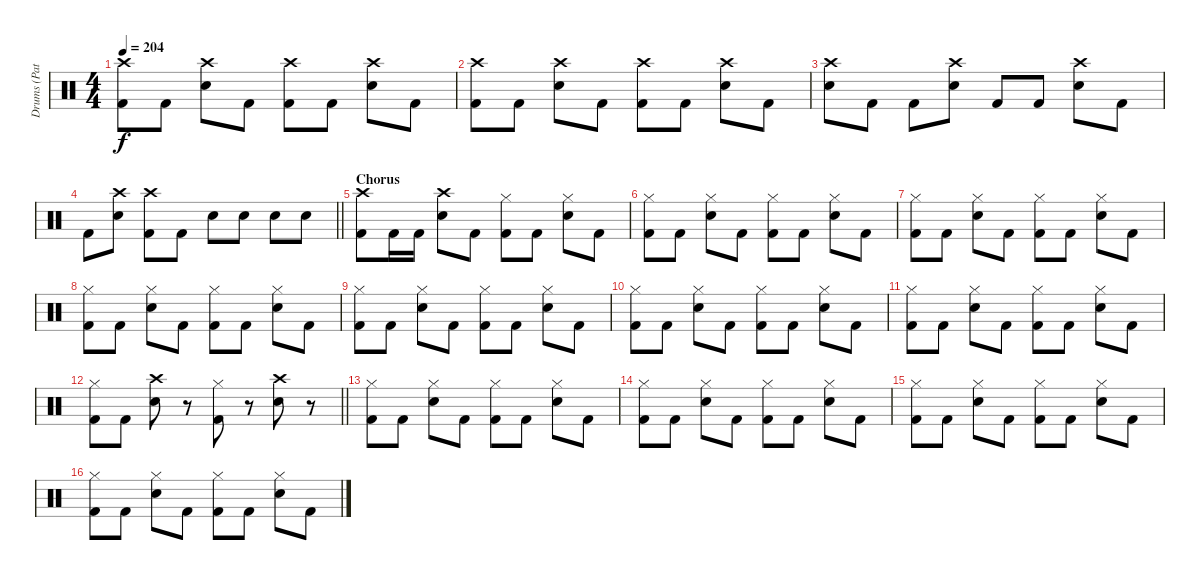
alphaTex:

\track ("Drums (Patrick Johansson)" "Drums (Pat") {instrument percussion}
\staff {score}
\articulation defaults
\ts (4 4)
\tempo 204
\clef neutral
\ks c
("Crash high (hit)" "Kick (hit) 2").8{dy f} "Kick (hit) 2".8 ("Crash high (hit)" "Electric Snare (hit)").8 "Kick (hit) 2".8 ("Crash high (hit)" "Kick (hit) 2").8 "Kick (hit) 2".8 ("Crash high (hit)" "Electric Snare (hit)").8 "Kick (hit) 2".8 |
("Crash high (hit)" "Kick (hit) 2").8 "Kick (hit) 2".8 ("Crash high (hit)" "Electric Snare (hit)").8 "Kick (hit) 2".8 ("Crash high (hit)" "Kick (hit) 2").8 "Kick (hit) 2".8 ("Crash high (hit)" "Electric Snare (hit)").8 "Kick (hit) 2".8 |
("Crash high (hit)" "Electric Snare (hit)").8 "Kick (hit) 2".8 "Kick (hit) 2".8 ("Crash high (hit)" "Electric Snare (hit)").8 "Kick (hit) 2".8 "Kick (hit) 2".8 ("Crash high (hit)" "Electric Snare (hit)").8 "Kick (hit) 2".8 |
\barLineRight lightlight "Kick (hit) 2".8
("Crash high (hit)" "Electric Snare (hit)").8 ("Crash high (hit)" "Kick (hit) 2").8 "Kick (hit) 2".8 "Electric Snare (hit)".8 "Electric Snare (hit)".8 "Electric Snare (hit)".8 "Electric Snare (hit)".8 |
\section ("" "Chorus")
("Crash high (hit)" "Kick (hit) 2").8 "Kick (hit) 2".16 "Kick (hit) 2".16 ("Crash high (hit)" "Electric Snare (hit)").8 "Kick (hit) 2".8 ("Hi-Hat (closed)" "Kick (hit) 2").8 "Kick (hit) 2".8 ("Electric Snare (hit)" "Hi-Hat (closed)").8 "Kick (hit) 2".8 |
("Hi-Hat (closed)" "Kick (hit) 2").8 "Kick (hit) 2".8 ("Electric Snare (hit)" "Hi-Hat (closed)").8 "Kick (hit) 2".8 ("Hi-Hat (closed)" "Kick (hit) 2").8 "Kick (hit) 2".8 ("Electric Snare (hit)" "Hi-Hat (closed)").8 "Kick (hit) 2".8 |
("Hi-Hat (closed)" "Kick (hit) 2").8 "Kick (hit) 2".8 ("Electric Snare (hit)" "Hi-Hat (closed)").8 "Kick (hit) 2".8 ("Hi-Hat (closed)" "Kick (hit) 2").8 "Kick (hit) 2".8 ("Electric Snare (hit)" "Hi-Hat (closed)").8 "Kick (hit) 2".8 |
("Hi-Hat (closed)" "Kick (hit) 2").8 "Kick (hit) 2".8 ("Electric Snare (hit)" "Hi-Hat (closed)").8 "Kick (hit) 2".8 ("Hi-Hat (closed)" "Kick (hit) 2").8 "Kick (hit) 2".8 ("Electric Snare (hit)" "Hi-Hat (closed)").8 "Kick (hit) 2".8 |
("Hi-Hat (closed)" "Kick (hit) 2").8 "Kick (hit) 2".8 ("Electric Snare (hit)" "Hi-Hat (closed)").8 "Kick (hit) 2".8 ("Hi-Hat (closed)" "Kick (hit) 2").8 "Kick (hit) 2".8 ("Electric Snare (hit)" "Hi-Hat (closed)").8 "Kick (hit) 2".8 |
("Hi-Hat (closed)" "Kick (hit) 2").8 "Kick (hit) 2".8 ("Electric Snare (hit)" "Hi-Hat (closed)").8 "Kick (hit) 2".8 ("Hi-Hat (closed)" "Kick (hit) 2").8 "Kick (hit) 2".8 ("Electric Snare (hit)" "Hi-Hat (closed)").8 "Kick (hit) 2".8 |
("Hi-Hat (closed)" "Kick (hit) 2").8 "Kick (hit) 2".8 ("Electric Snare (hit)" "Hi-Hat (closed)").8 "Kick (hit) 2".8 ("Hi-Hat (closed)" "Kick (hit) 2").8 "Kick (hit) 2".8 ("Electric Snare (hit)" "Hi-Hat (closed)").8 "Kick (hit) 2".8 |
\barLineRight lightlight
("Hi-Hat (closed)" "Kick (hit) 2").8 "Kick (hit) 2".8 ("Crash high (hit)" "Electric Snare (hit)").8 r.8 ("Hi-Hat (closed)" "Kick (hit) 2").8 r.8 ("Crash high (hit)" "Electric Snare (hit)").8 r.8 |
("Hi-Hat (closed)" "Kick (hit) 2").8 "Kick (hit) 2".8 ("Electric Snare (hit)" "Hi-Hat (closed)").8 "Kick (hit) 2".8 ("Hi-Hat (closed)" "Kick (hit) 2").8 "Kick (hit) 2".8 ("Electric Snare (hit)" "Hi-Hat (closed)").8 "Kick (hit) 2".8 |
("Hi-Hat (closed)" "Kick (hit) 2").8 "Kick (hit) 2".8 ("Electric Snare (hit)" "Hi-Hat (closed)").8 "Kick (hit) 2".8 ("Hi-Hat (closed)" "Kick (hit) 2").8 "Kick (hit) 2".8 ("Electric Snare (hit)" "Hi-Hat (closed)").8 "Kick (hit) 2".8 |
("Hi-Hat (closed)" "Kick (hit) 2").8 "Kick (hit) 2".8 ("Electric Snare (hit)" "Hi-Hat (closed)").8 "Kick (hit) 2".8 ("Hi-Hat (closed)" "Kick (hit) 2").8 "Kick (hit) 2".8 ("Electric Snare (hit)" "Hi-Hat (closed)").8 "Kick (hit) 2".8 |
("Hi-Hat (closed)" "Kick (hit) 2").8 "Kick (hit) 2".8 ("Electric Snare (hit)" "Hi-Hat (closed)").8 "Kick (hit) 2".8 ("Hi-Hat (closed)" "Kick (hit) 2").8 "Kick (hit) 2".8 ("Electric Snare (hit)" "Hi-Hat (closed)").8 "Kick (hit) 2".8
